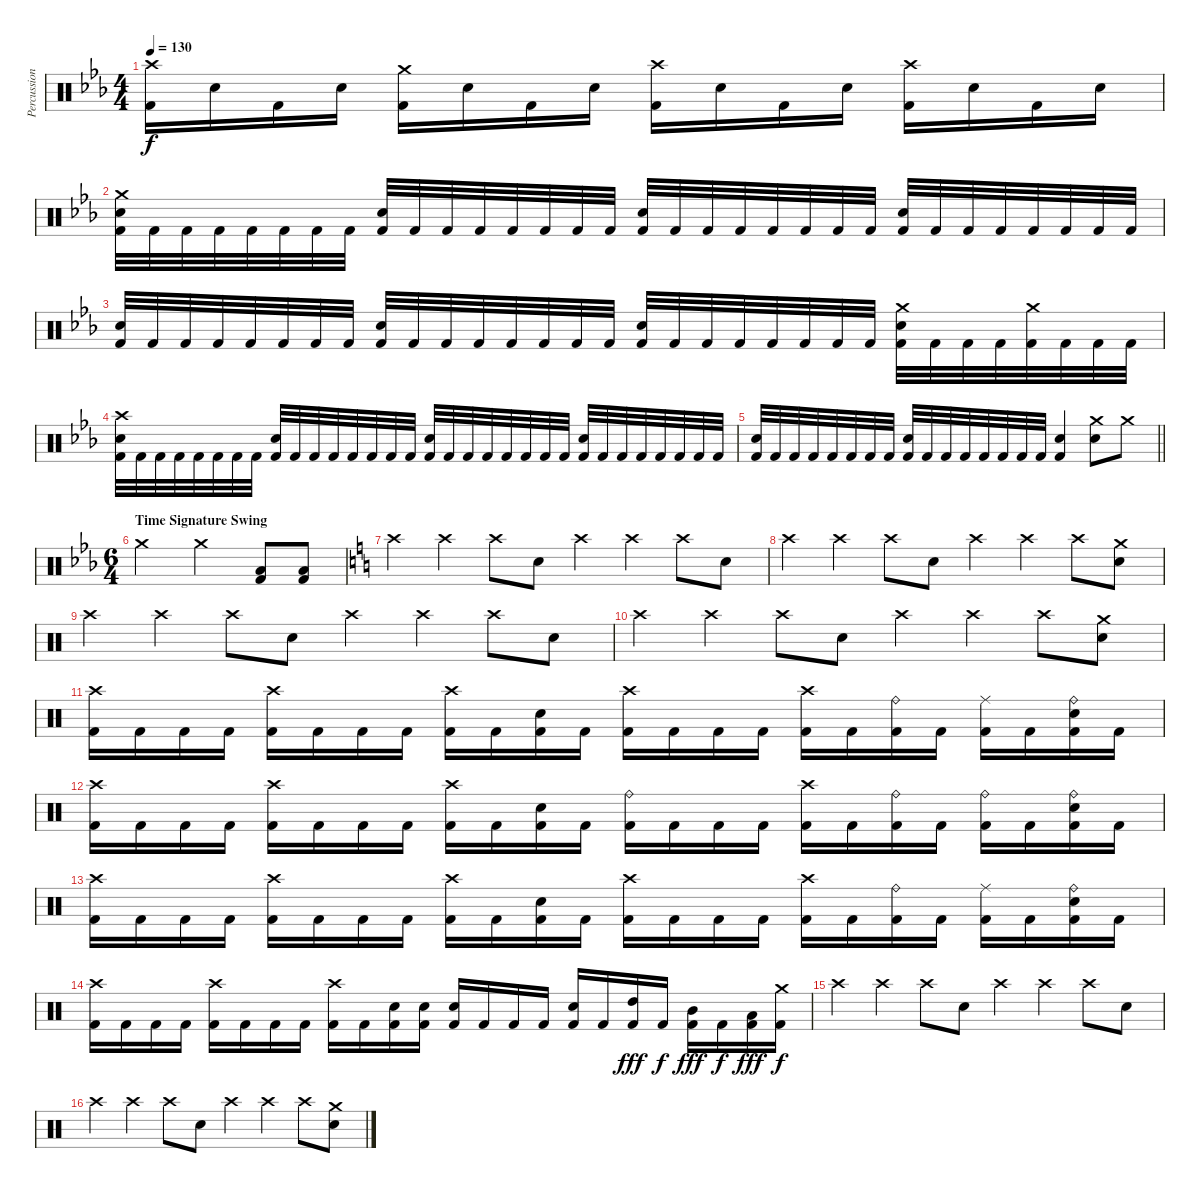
\track ("Percussion" "Percussion") {instrument percussion}
\staff {score}
\articulation defaults
\ts (4 4)
\tempo 130
\clef neutral
\ks cminor
("Crash high (hit)" "Kick (hit) 2").16{dy f} "Electric Snare (hit)".16 "Kick (hit) 2".16 "Electric Snare (hit)".16 ("Crash medium (hit)" "Kick (hit) 2").16 "Electric Snare (hit)".16 "Kick (hit) 2".16 "Electric Snare (hit)".16 ("Crash high (hit)" "Kick (hit) 2").16 "Electric Snare (hit)".16 "Kick (hit) 2".16 "Electric Snare (hit)".16 ("Crash high (hit)" "Kick (hit) 2").16 "Electric Snare (hit)".16 "Kick (hit) 2".16 "Electric Snare (hit)".16 |
\ks eb
("Crash medium (hit)" "Electric Snare (hit)" "Kick (hit) 2").32 "Kick (hit) 2".32 "Kick (hit) 2".32 "Kick (hit) 2".32 "Kick (hit) 2".32 "Kick (hit) 2".32 "Kick (hit) 2".32 "Kick (hit) 2".32 ("Electric Snare (hit)" "Kick (hit) 2").32 "Kick (hit) 2".32 "Kick (hit) 2".32 "Kick (hit) 2".32 "Kick (hit) 2".32 "Kick (hit) 2".32 "Kick (hit) 2".32 "Kick (hit) 2".32 ("Electric Snare (hit)" "Kick (hit) 2").32 "Kick (hit) 2".32 "Kick (hit) 2".32 "Kick (hit) 2".32 "Kick (hit) 2".32 "Kick (hit) 2".32 "Kick (hit) 2".32 "Kick (hit) 2".32 ("Electric Snare (hit)" "Kick (hit) 2").32 "Kick (hit) 2".32 "Kick (hit) 2".32 "Kick (hit) 2".32 "Kick (hit) 2".32 "Kick (hit) 2".32 "Kick (hit) 2".32 "Kick (hit) 2".32 |
\ks cminor
("Electric Snare (hit)" "Kick (hit) 2").32 "Kick (hit) 2".32 "Kick (hit) 2".32 "Kick (hit) 2".32 "Kick (hit) 2".32 "Kick (hit) 2".32 "Kick (hit) 2".32 "Kick (hit) 2".32 ("Electric Snare (hit)" "Kick (hit) 2").32 "Kick (hit) 2".32 "Kick (hit) 2".32 "Kick (hit) 2".32 "Kick (hit) 2".32 "Kick (hit) 2".32 "Kick (hit) 2".32 "Kick (hit) 2".32 ("Electric Snare (hit)" "Kick (hit) 2").32 "Kick (hit) 2".32 "Kick (hit) 2".32 "Kick (hit) 2".32 "Kick (hit) 2".32 "Kick (hit) 2".32 "Kick (hit) 2".32 "Kick (hit) 2".32 ("Crash medium (hit)" "Electric Snare (hit)" "Kick (hit) 2").32 "Kick (hit) 2".32 "Kick (hit) 2".32 "Kick (hit) 2".32 ("Crash medium (hit)" "Kick (hit) 2").32 "Kick (hit) 2".32 "Kick (hit) 2".32 "Kick (hit) 2".32 |
\ks eb
("Crash high (hit)" "Electric Snare (hit)" "Kick (hit) 2").32 "Kick (hit) 2".32 "Kick (hit) 2".32 "Kick (hit) 2".32 "Kick (hit) 2".32 "Kick (hit) 2".32 "Kick (hit) 2".32 "Kick (hit) 2".32 ("Electric Snare (hit)" "Kick (hit) 2").32 "Kick (hit) 2".32 "Kick (hit) 2".32 "Kick (hit) 2".32 "Kick (hit) 2".32 "Kick (hit) 2".32 "Kick (hit) 2".32 "Kick (hit) 2".32 ("Electric Snare (hit)" "Kick (hit) 2").32 "Kick (hit) 2".32 "Kick (hit) 2".32 "Kick (hit) 2".32 "Kick (hit) 2".32 "Kick (hit) 2".32 "Kick (hit) 2".32 "Kick (hit) 2".32 ("Electric Snare (hit)" "Kick (hit) 2").32 "Kick (hit) 2".32 "Kick (hit) 2".32 "Kick (hit) 2".32 "Kick (hit) 2".32 "Kick (hit) 2".32 "Kick (hit) 2".32 "Kick (hit) 2".32 |
\barLineRight lightlight
\ks cminor
("Electric Snare (hit)" "Kick (hit) 2").32 "Kick (hit) 2".32 "Kick (hit) 2".32 "Kick (hit) 2".32 "Kick (hit) 2".32 "Kick (hit) 2".32 "Kick (hit) 2".32 "Kick (hit) 2".32 ("Electric Snare (hit)" "Kick (hit) 2").32 "Kick (hit) 2".32 "Kick (hit) 2".32 "Kick (hit) 2".32 "Kick (hit) 2".32 "Kick (hit) 2".32 "Kick (hit) 2".32 "Kick (hit) 2".32 ("Electric Snare (hit)" "Kick (hit) 2").4 ("Crash medium (hit)" "Electric Snare (hit)").8 "Crash medium (hit)".8 |
\ts (6 4)
\section ("" "Time Signature Swing")
"Crash medium (hit)".2 "Crash medium (hit)".2 ("Low Floor Tom (hit)" "Kick (hit) 2").8 ("Low Floor Tom (hit)" "Kick (hit) 2").8 |
\ks c "Crash high (hit)".4 "Crash high (hit)".4 "Crash high (hit)".8 "Electric Snare (hit)".8 "Crash high (hit)".4 "Crash high (hit)".4 "Crash high (hit)".8 "Electric Snare (hit)".8
|
"Crash high (hit)".4 "Crash high (hit)".4 "Crash high (hit)".8 "Electric Snare (hit)".8 "Crash high (hit)".4 "Crash high (hit)".4 "Crash high (hit)".8 ("Crash medium (hit)" "Electric Snare (hit)").8 |
"Crash high (hit)".4 "Crash high (hit)".4 "Crash high (hit)".8 "Electric Snare (hit)".8 "Crash high (hit)".4 "Crash high (hit)".4 "Crash high (hit)".8 "Electric Snare (hit)".8 |
"Crash high (hit)".4 "Crash high (hit)".4 "Crash high (hit)".8 "Electric Snare (hit)".8 "Crash high (hit)".4 "Crash high (hit)".4 "Crash high (hit)".8 ("Crash medium (hit)" "Electric Snare (hit)").8 |
("Crash high (hit)" "Kick (hit) 2").16 "Kick (hit) 2".16 "Kick (hit) 2".16 "Kick (hit) 2".16 ("Crash high (hit)" "Kick (hit) 2").16 "Kick (hit) 2".16 "Kick (hit) 2".16 "Kick (hit) 2".16 ("Crash high (hit)" "Kick (hit) 2").16 "Kick (hit) 2".16 ("Electric Snare (hit)" "Kick (hit) 2").16 "Kick (hit) 2".16 ("Crash high (hit)" "Kick (hit) 2").16 "Kick (hit) 2".16 "Kick (hit) 2".16 "Kick (hit) 2".16 ("Crash high (hit)" "Kick (hit) 2").16 "Kick (hit) 2".16 ("Ride (bell)" "Kick (hit) 2").16 "Kick (hit) 2".16 ("Ride (middle)" "Kick (hit) 2").16 "Kick (hit) 2".16 ("Ride (bell)" "Electric Snare (hit)" "Kick (hit) 2").16 "Kick (hit) 2".16 |
("Crash high (hit)" "Kick (hit) 2").16 "Kick (hit) 2".16 "Kick (hit) 2".16 "Kick (hit) 2".16 ("Crash high (hit)" "Kick (hit) 2").16 "Kick (hit) 2".16 "Kick (hit) 2".16 "Kick (hit) 2".16 ("Crash high (hit)" "Kick (hit) 2").16 "Kick (hit) 2".16 ("Electric Snare (hit)" "Kick (hit) 2").16 "Kick (hit) 2".16 ("Ride (bell)" "Kick (hit) 2").16 "Kick (hit) 2".16 "Kick (hit) 2".16 "Kick (hit) 2".16 ("Crash high (hit)" "Kick (hit) 2").16 "Kick (hit) 2".16 ("Ride (bell)" "Kick (hit) 2").16 "Kick (hit) 2".16 ("Ride (bell)" "Kick (hit) 2").16 "Kick (hit) 2".16 ("Ride (bell)" "Electric Snare (hit)" "Kick (hit) 2").16 "Kick (hit) 2".16 |
("Crash high (hit)" "Kick (hit) 2").16 "Kick (hit) 2".16 "Kick (hit) 2".16 "Kick (hit) 2".16 ("Crash high (hit)" "Kick (hit) 2").16 "Kick (hit) 2".16 "Kick (hit) 2".16 "Kick (hit) 2".16 ("Crash high (hit)" "Kick (hit) 2").16 "Kick (hit) 2".16 ("Electric Snare (hit)" "Kick (hit) 2").16 "Kick (hit) 2".16 ("Crash high (hit)" "Kick (hit) 2").16 "Kick (hit) 2".16 "Kick (hit) 2".16 "Kick (hit) 2".16 ("Crash high (hit)" "Kick (hit) 2").16 "Kick (hit) 2".16 ("Ride (bell)" "Kick (hit) 2").16 "Kick (hit) 2".16 ("Ride (middle)" "Kick (hit) 2").16 "Kick (hit) 2".16 ("Ride (bell)" "Electric Snare (hit)" "Kick (hit) 2").16 "Kick (hit) 2".16 |
("Crash high (hit)" "Kick (hit) 2").16 "Kick (hit) 2".16 "Kick (hit) 2".16 "Kick (hit) 2".16 ("Crash high (hit)" "Kick (hit) 2").16 "Kick (hit) 2".16 "Kick (hit) 2".16 "Kick (hit) 2".16 ("Crash high (hit)" "Kick (hit) 2").16 "Kick (hit) 2".16 ("Electric Snare (hit)" "Kick (hit) 2").16 ("Electric Snare (hit)" "Kick (hit) 2").16 ("Electric Snare (hit)" "Kick (hit) 2").16 "Kick (hit) 2".16 "Kick (hit) 2".16 "Kick (hit) 2".16 ("Electric Snare (hit)" "Kick (hit) 2").16 "Kick (hit) 2".16 ("High Tom (hit)" "Kick (hit) 2").16{dy fff} "Kick (hit) 2".16{dy f} ("Mid Tom (hit)" "Kick (hit) 2").16{dy fff} "Kick (hit) 2".16{dy f} ("Low Tom (hit)" "Kick (hit) 2").16{dy fff} ("Crash medium (hit)" "Kick (hit) 2").16{dy f} |
"Crash high (hit)".4 "Crash high (hit)".4 "Crash high (hit)".8 "Electric Snare (hit)".8 "Crash high (hit)".4 "Crash high (hit)".4 "Crash high (hit)".8 "Electric Snare (hit)".8 |
"Crash high (hit)".4 "Crash high (hit)".4 "Crash high (hit)".8 "Electric Snare (hit)".8 "Crash high (hit)".4 "Crash high (hit)".4 "Crash high (hit)".8 ("Crash medium (hit)" "Electric Snare (hit)").8
